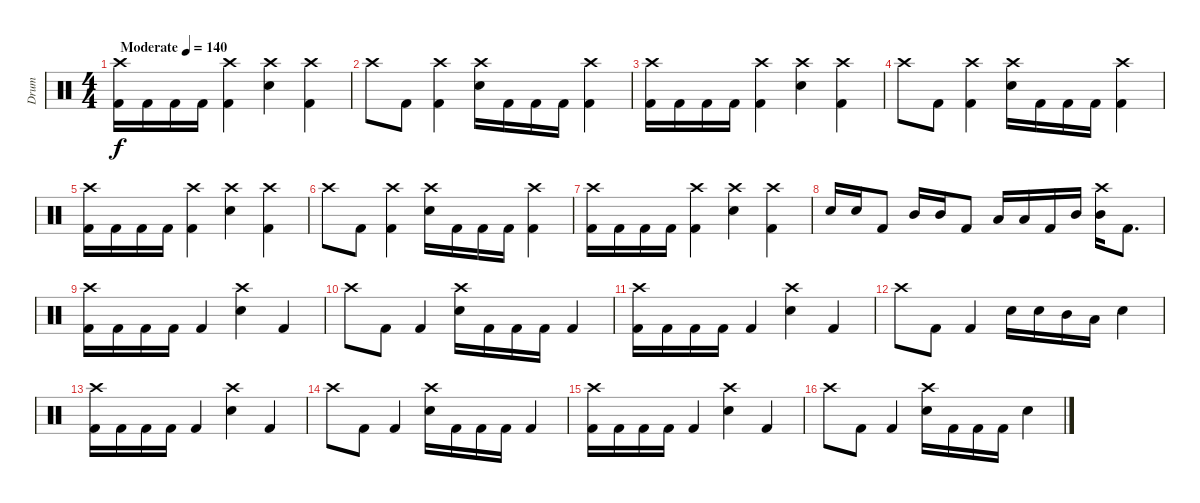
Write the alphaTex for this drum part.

\track ("Drum" "Drum") {instrument percussion}
\staff {score}
\articulation defaults
\ts (4 4)
\tempo (140 "Moderate")
\clef neutral
\ks c
("Crash high (hit)" "Kick (hit) 2").16{dy f} "Kick (hit) 2".16 "Kick (hit) 2".16 "Kick (hit) 2".16 ("Crash high (hit)" "Kick (hit) 2").4 ("Crash high (hit)" "Electric Snare (hit)").4 ("Crash high (hit)" "Kick (hit) 2").4 |
"Crash high (hit)".8 "Kick (hit) 2".8 ("Crash high (hit)" "Kick (hit) 2").4 ("Crash high (hit)" "Electric Snare (hit)").16 "Kick (hit) 2".16 "Kick (hit) 2".16 "Kick (hit) 2".16 ("Crash high (hit)" "Kick (hit) 2").4 |
("Crash high (hit)" "Kick (hit) 2").16 "Kick (hit) 2".16 "Kick (hit) 2".16 "Kick (hit) 2".16 ("Crash high (hit)" "Kick (hit) 2").4 ("Crash high (hit)" "Electric Snare (hit)").4 ("Crash high (hit)" "Kick (hit) 2").4 |
"Crash high (hit)".8 "Kick (hit) 2".8 ("Crash high (hit)" "Kick (hit) 2").4 ("Crash high (hit)" "Electric Snare (hit)").16 "Kick (hit) 2".16 "Kick (hit) 2".16 "Kick (hit) 2".16 ("Crash high (hit)" "Kick (hit) 2").4 |
("Crash high (hit)" "Kick (hit) 2").16 "Kick (hit) 2".16 "Kick (hit) 2".16 "Kick (hit) 2".16 ("Crash high (hit)" "Kick (hit) 2").4 ("Crash high (hit)" "Electric Snare (hit)").4 ("Crash high (hit)" "Kick (hit) 2").4 |
"Crash high (hit)".8 "Kick (hit) 2".8 ("Crash high (hit)" "Kick (hit) 2").4 ("Crash high (hit)" "Electric Snare (hit)").16 "Kick (hit) 2".16 "Kick (hit) 2".16 "Kick (hit) 2".16 ("Crash high (hit)" "Kick (hit) 2").4 |
("Crash high (hit)" "Kick (hit) 2").16 "Kick (hit) 2".16 "Kick (hit) 2".16 "Kick (hit) 2".16 ("Crash high (hit)" "Kick (hit) 2").4 ("Crash high (hit)" "Electric Snare (hit)").4 ("Crash high (hit)" "Kick (hit) 2").4 |
"Electric Snare (hit)".16 "Electric Snare (hit)".16 "Kick (hit) 2".8 "Mid Tom (hit)".16 "Mid Tom (hit)".16 "Kick (hit) 2".8 "Low Floor Tom (hit)".16 "Low Floor Tom (hit)".16 "Kick (hit) 2".16 "Mid Tom (hit)".16 ("Crash high (hit)" "Mid Tom (hit)").16 "Kick (hit) 2".8{d} |
("Crash high (hit)" "Kick (hit) 2").16 "Kick (hit) 2".16 "Kick (hit) 2".16 "Kick (hit) 2".16 "Kick (hit) 2".4 ("Crash high (hit)" "Electric Snare (hit)").4 "Kick (hit) 2".4 |
"Crash high (hit)".8 "Kick (hit) 2".8 "Kick (hit) 2".4 ("Crash high (hit)" "Electric Snare (hit)").16 "Kick (hit) 2".16 "Kick (hit) 2".16 "Kick (hit) 2".16 "Kick (hit) 2".4 |
("Crash high (hit)" "Kick (hit) 2").16 "Kick (hit) 2".16 "Kick (hit) 2".16 "Kick (hit) 2".16 "Kick (hit) 2".4 ("Crash high (hit)" "Electric Snare (hit)").4 "Kick (hit) 2".4 |
"Crash high (hit)".8 "Kick (hit) 2".8 "Kick (hit) 2".4 "Electric Snare (hit)".16 "Electric Snare (hit)".16 "Mid Tom (hit)".16 "Low Floor Tom (hit)".16 "Electric Snare (hit)".4 |
("Crash high (hit)" "Kick (hit) 2").16 "Kick (hit) 2".16 "Kick (hit) 2".16 "Kick (hit) 2".16 "Kick (hit) 2".4 ("Crash high (hit)" "Electric Snare (hit)").4 "Kick (hit) 2".4 |
"Crash high (hit)".8 "Kick (hit) 2".8 "Kick (hit) 2".4 ("Crash high (hit)" "Electric Snare (hit)").16 "Kick (hit) 2".16 "Kick (hit) 2".16 "Kick (hit) 2".16 "Kick (hit) 2".4 |
("Crash high (hit)" "Kick (hit) 2").16 "Kick (hit) 2".16 "Kick (hit) 2".16 "Kick (hit) 2".16 "Kick (hit) 2".4 ("Crash high (hit)" "Electric Snare (hit)").4 "Kick (hit) 2".4 |
"Crash high (hit)".8 "Kick (hit) 2".8 "Kick (hit) 2".4 ("Crash high (hit)" "Electric Snare (hit)").16 "Kick (hit) 2".16 "Kick (hit) 2".16 "Kick (hit) 2".16 "Electric Snare (hit)".4
